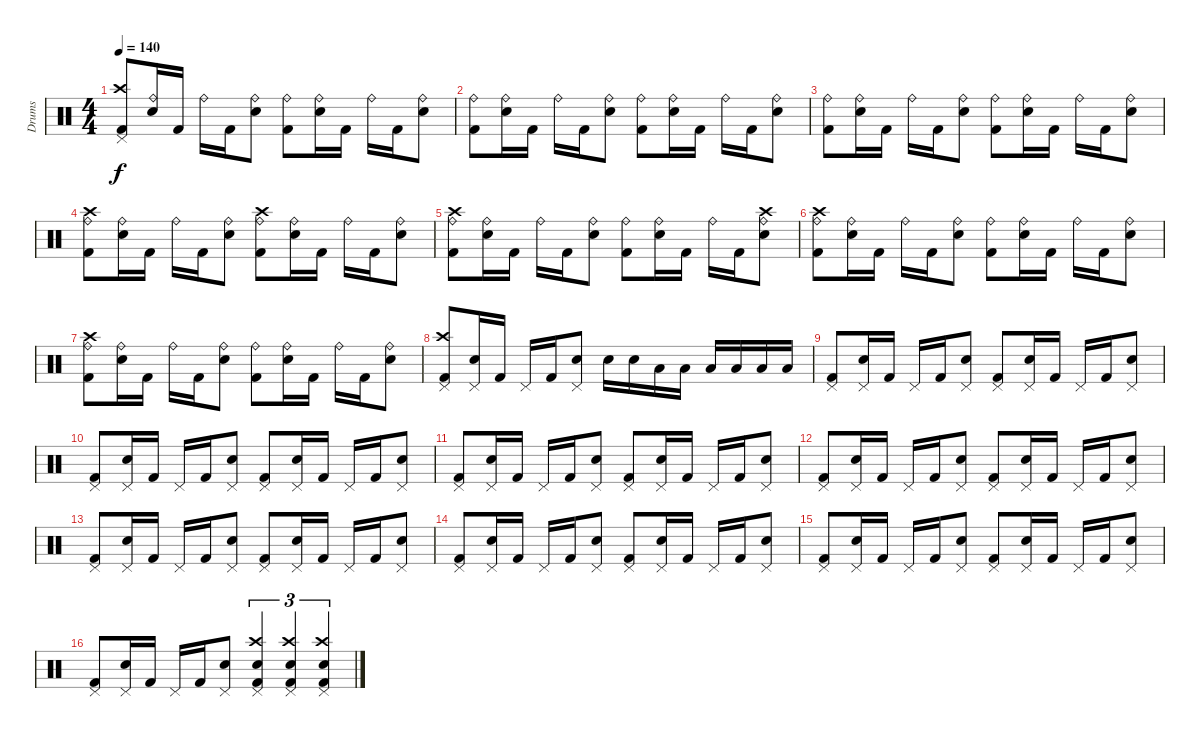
\track ("Drums" "Drums") {instrument percussion}
\staff {score}
\articulation defaults
\ts (4 4)
\tempo 140
\clef neutral
\ks c
("Pedal Hi-Hat (hit)" "Crash high (hit)" "Kick (hit) 2").8{dy f} ("Ride (bell)" "Electric Snare (hit)").16 "Kick (hit) 2".16 "Ride (bell)".16 "Kick (hit) 2".16 ("Ride (bell)" "Electric Snare (hit)").8 ("Ride (bell)" "Kick (hit) 2").8 ("Ride (bell)" "Electric Snare (hit)").16 "Kick (hit) 2".16 "Ride (bell)".16 "Kick (hit) 2".16 ("Ride (bell)" "Electric Snare (hit)").8 |
("Ride (bell)" "Kick (hit) 2").8 ("Ride (bell)" "Electric Snare (hit)").16 "Kick (hit) 2".16 "Ride (bell)".16 "Kick (hit) 2".16 ("Ride (bell)" "Electric Snare (hit)").8 ("Ride (bell)" "Kick (hit) 2").8 ("Ride (bell)" "Electric Snare (hit)").16 "Kick (hit) 2".16 "Ride (bell)".16 "Kick (hit) 2".16 ("Ride (bell)" "Electric Snare (hit)").8 |
("Ride (bell)" "Kick (hit) 2").8 ("Ride (bell)" "Electric Snare (hit)").16 "Kick (hit) 2".16 "Ride (bell)".16 "Kick (hit) 2".16 ("Ride (bell)" "Electric Snare (hit)").8 ("Ride (bell)" "Kick (hit) 2").8 ("Ride (bell)" "Electric Snare (hit)").16 "Kick (hit) 2".16 "Ride (bell)".16 "Kick (hit) 2".16 ("Ride (bell)" "Electric Snare (hit)").8 |
("Ride (bell)" "Crash high (hit)" "Kick (hit) 2").8 ("Ride (bell)" "Electric Snare (hit)").16 "Kick (hit) 2".16 "Ride (bell)".16 "Kick (hit) 2".16 ("Ride (bell)" "Electric Snare (hit)").8 ("Ride (bell)" "Crash high (hit)" "Kick (hit) 2").8 ("Ride (bell)" "Electric Snare (hit)").16 "Kick (hit) 2".16 "Ride (bell)".16 "Kick (hit) 2".16 ("Ride (bell)" "Electric Snare (hit)").8 |
("Ride (bell)" "Crash high (hit)" "Kick (hit) 2").8 ("Ride (bell)" "Electric Snare (hit)").16 "Kick (hit) 2".16 "Ride (bell)".16 "Kick (hit) 2".16 ("Ride (bell)" "Electric Snare (hit)").8 ("Ride (bell)" "Kick (hit) 2").8 ("Ride (bell)" "Electric Snare (hit)").16 "Kick (hit) 2".16 "Ride (bell)".16 "Kick (hit) 2".16 ("Ride (bell)" "Electric Snare (hit)" "Crash high (hit)").8 |
("Ride (bell)" "Crash high (hit)" "Kick (hit) 2").8 ("Ride (bell)" "Electric Snare (hit)").16 "Kick (hit) 2".16 "Ride (bell)".16 "Kick (hit) 2".16 ("Ride (bell)" "Electric Snare (hit)").8 ("Ride (bell)" "Kick (hit) 2").8 ("Ride (bell)" "Electric Snare (hit)").16 "Kick (hit) 2".16 "Ride (bell)".16 "Kick (hit) 2".16 ("Ride (bell)" "Electric Snare (hit)").8 |
("Ride (bell)" "Crash high (hit)" "Kick (hit) 2").8 ("Ride (bell)" "Electric Snare (hit)").16 "Kick (hit) 2".16 "Ride (bell)".16 "Kick (hit) 2".16 ("Ride (bell)" "Electric Snare (hit)").8 ("Ride (bell)" "Kick (hit) 2").8 ("Ride (bell)" "Electric Snare (hit)").16 "Kick (hit) 2".16 "Ride (bell)".16 "Kick (hit) 2".16 ("Ride (bell)" "Electric Snare (hit)").8 |
("Pedal Hi-Hat (hit)" "Crash high (hit)" "Kick (hit) 2").8 ("Pedal Hi-Hat (hit)" "Electric Snare (hit)").16 "Kick (hit) 2".16 "Pedal Hi-Hat (hit)".16 "Kick (hit) 2".16 ("Pedal Hi-Hat (hit)" "Electric Snare (hit)").8 "Electric Snare (hit)".16 "Electric Snare (hit)".16 "Low Tom (hit)".16 "Low Tom (hit)".16 "Low Floor Tom (hit)".16 "Low Floor Tom (hit)".16 "Low Floor Tom (hit)".16 "Low Floor Tom (hit)".16 |
("Pedal Hi-Hat (hit)" "Kick (hit) 2").8 ("Pedal Hi-Hat (hit)" "Electric Snare (hit)").16 "Kick (hit) 2".16 "Pedal Hi-Hat (hit)".16 "Kick (hit) 2".16 ("Pedal Hi-Hat (hit)" "Electric Snare (hit)").8 ("Pedal Hi-Hat (hit)" "Kick (hit) 2").8 ("Pedal Hi-Hat (hit)" "Electric Snare (hit)").16 "Kick (hit) 2".16 "Pedal Hi-Hat (hit)".16 "Kick (hit) 2".16 ("Pedal Hi-Hat (hit)" "Electric Snare (hit)").8 |
("Pedal Hi-Hat (hit)" "Kick (hit) 2").8 ("Pedal Hi-Hat (hit)" "Electric Snare (hit)").16 "Kick (hit) 2".16 "Pedal Hi-Hat (hit)".16 "Kick (hit) 2".16 ("Pedal Hi-Hat (hit)" "Electric Snare (hit)").8 ("Pedal Hi-Hat (hit)" "Kick (hit) 2").8 ("Pedal Hi-Hat (hit)" "Electric Snare (hit)").16 "Kick (hit) 2".16 "Pedal Hi-Hat (hit)".16 "Kick (hit) 2".16 ("Pedal Hi-Hat (hit)" "Electric Snare (hit)").8 |
("Pedal Hi-Hat (hit)" "Kick (hit) 2").8 ("Pedal Hi-Hat (hit)" "Electric Snare (hit)").16 "Kick (hit) 2".16 "Pedal Hi-Hat (hit)".16 "Kick (hit) 2".16 ("Pedal Hi-Hat (hit)" "Electric Snare (hit)").8 ("Pedal Hi-Hat (hit)" "Kick (hit) 2").8 ("Pedal Hi-Hat (hit)" "Electric Snare (hit)").16 "Kick (hit) 2".16 "Pedal Hi-Hat (hit)".16 "Kick (hit) 2".16 ("Pedal Hi-Hat (hit)" "Electric Snare (hit)").8 |
("Pedal Hi-Hat (hit)" "Kick (hit) 2").8 ("Pedal Hi-Hat (hit)" "Electric Snare (hit)").16 "Kick (hit) 2".16 "Pedal Hi-Hat (hit)".16 "Kick (hit) 2".16 ("Pedal Hi-Hat (hit)" "Electric Snare (hit)").8 ("Pedal Hi-Hat (hit)" "Kick (hit) 2").8 ("Pedal Hi-Hat (hit)" "Electric Snare (hit)").16 "Kick (hit) 2".16 "Pedal Hi-Hat (hit)".16 "Kick (hit) 2".16 ("Pedal Hi-Hat (hit)" "Electric Snare (hit)").8 |
("Pedal Hi-Hat (hit)" "Kick (hit) 2").8 ("Pedal Hi-Hat (hit)" "Electric Snare (hit)").16 "Kick (hit) 2".16 "Pedal Hi-Hat (hit)".16 "Kick (hit) 2".16 ("Pedal Hi-Hat (hit)" "Electric Snare (hit)").8 ("Pedal Hi-Hat (hit)" "Kick (hit) 2").8 ("Pedal Hi-Hat (hit)" "Electric Snare (hit)").16 "Kick (hit) 2".16 "Pedal Hi-Hat (hit)".16 "Kick (hit) 2".16 ("Pedal Hi-Hat (hit)" "Electric Snare (hit)").8 |
("Pedal Hi-Hat (hit)" "Kick (hit) 2").8 ("Pedal Hi-Hat (hit)" "Electric Snare (hit)").16 "Kick (hit) 2".16 "Pedal Hi-Hat (hit)".16 "Kick (hit) 2".16 ("Pedal Hi-Hat (hit)" "Electric Snare (hit)").8 ("Pedal Hi-Hat (hit)" "Kick (hit) 2").8 ("Pedal Hi-Hat (hit)" "Electric Snare (hit)").16 "Kick (hit) 2".16 "Pedal Hi-Hat (hit)".16 "Kick (hit) 2".16 ("Pedal Hi-Hat (hit)" "Electric Snare (hit)").8 |
("Pedal Hi-Hat (hit)" "Kick (hit) 2").8 ("Pedal Hi-Hat (hit)" "Electric Snare (hit)").16 "Kick (hit) 2".16 "Pedal Hi-Hat (hit)".16 "Kick (hit) 2".16 ("Pedal Hi-Hat (hit)" "Electric Snare (hit)").8 ("Pedal Hi-Hat (hit)" "Kick (hit) 2").8 ("Pedal Hi-Hat (hit)" "Electric Snare (hit)").16 "Kick (hit) 2".16 "Pedal Hi-Hat (hit)".16 "Kick (hit) 2".16 ("Pedal Hi-Hat (hit)" "Electric Snare (hit)").8 |
("Pedal Hi-Hat (hit)" "Kick (hit) 2").8 ("Pedal Hi-Hat (hit)" "Electric Snare (hit)").16 "Kick (hit) 2".16 "Pedal Hi-Hat (hit)".16 "Kick (hit) 2".16 ("Pedal Hi-Hat (hit)" "Electric Snare (hit)").8 ("Pedal Hi-Hat (hit)" "Crash high (hit)" "Electric Snare (hit)" "Kick (hit) 2").4{tu (3 2)} ("Pedal Hi-Hat (hit)" "Crash high (hit)" "Electric Snare (hit)" "Kick (hit) 2").4{tu (3 2)} ("Pedal Hi-Hat (hit)" "Crash high (hit)" "Electric Snare (hit)" "Kick (hit) 2").4{tu (3 2)}
